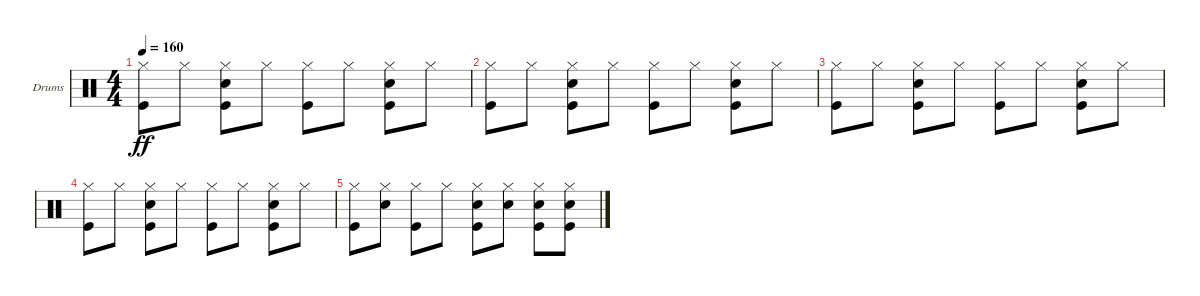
\bracketExtendMode groupsimilarinstruments
\firstSystemTrackNameOrientation horizontal
\otherSystemsTrackNameOrientation horizontal
\track ("Ударные" "Drums") {instrument percussion}
\staff {score}
\articulation defaults
\ts (4 4)
\tempo 160
\clef neutral
\ks c
("Hi-Hat (closed)" "Kick (hit)").8{dy ff} "Hi-Hat (closed)".8 ("Hi-Hat (closed)" "Snare (hit) 2" "Kick (hit)").8 "Hi-Hat (closed)".8 ("Hi-Hat (closed)" "Kick (hit)").8 "Hi-Hat (closed)".8 ("Hi-Hat (closed)" "Snare (hit) 2" "Kick (hit)").8 "Hi-Hat (closed)".8 |
("Hi-Hat (closed)" "Kick (hit)").8 "Hi-Hat (closed)".8 ("Hi-Hat (closed)" "Snare (hit) 2" "Kick (hit)").8 "Hi-Hat (closed)".8 ("Hi-Hat (closed)" "Kick (hit)").8 "Hi-Hat (closed)".8 ("Hi-Hat (closed)" "Snare (hit) 2" "Kick (hit)").8 "Hi-Hat (closed)".8 |
("Hi-Hat (closed)" "Kick (hit)").8 "Hi-Hat (closed)".8 ("Hi-Hat (closed)" "Snare (hit) 2" "Kick (hit)").8 "Hi-Hat (closed)".8 ("Hi-Hat (closed)" "Kick (hit)").8 "Hi-Hat (closed)".8 ("Hi-Hat (closed)" "Snare (hit) 2" "Kick (hit)").8 "Hi-Hat (closed)".8 |
("Hi-Hat (closed)" "Kick (hit)").8 "Hi-Hat (closed)".8 ("Hi-Hat (closed)" "Snare (hit) 2" "Kick (hit)").8 "Hi-Hat (closed)".8 ("Hi-Hat (closed)" "Kick (hit)").8 "Hi-Hat (closed)".8 ("Hi-Hat (closed)" "Snare (hit) 2" "Kick (hit)").8 "Hi-Hat (closed)".8 |
("Hi-Hat (closed)" "Kick (hit)").8 ("Hi-Hat (closed)" "Snare (hit) 2").8 ("Hi-Hat (closed)" "Kick (hit)").8 "Hi-Hat (closed)".8 ("Hi-Hat (closed)" "Snare (hit) 2" "Kick (hit)").8 ("Hi-Hat (closed)" "Snare (hit) 2").8 ("Hi-Hat (closed)" "Snare (hit) 2" "Kick (hit)").8 ("Hi-Hat (closed)" "Snare (hit) 2" "Kick (hit)").8
